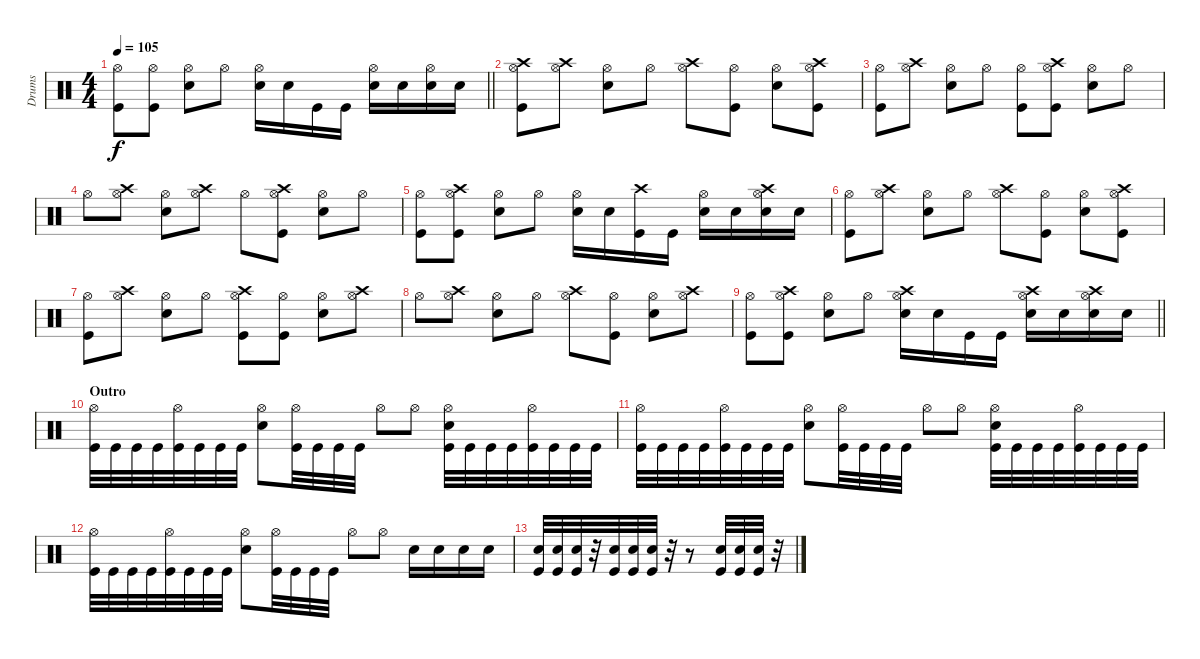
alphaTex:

\track ("Drums" "Drums") {instrument percussion}
\staff {score}
\articulation defaults
\ts (4 4)
\tempo 105
\clef neutral
\barLineRight lightlight
\ks c
("Kick (hit)" "Hi-Hat (open)").8{dy f} ("Kick (hit)" "Hi-Hat (open)").8 ("Snare (hit) 2" "Hi-Hat (open)").8 "Hi-Hat (open)".8 ("Snare (hit) 2" "Hi-Hat (open)").16 "Snare (hit) 2".16 "Kick (hit)".16 "Kick (hit)".16 ("Snare (hit) 2" "Hi-Hat (open)").16 "Snare (hit) 2".16 ("Snare (hit) 2" "Hi-Hat (open)").16 "Snare (hit) 2".16 |
("Kick (hit)" "Hi-Hat (open)" "Crash high (hit)").8 ("Crash high (hit)" "Hi-Hat (open)").8 ("Snare (hit) 2" "Hi-Hat (open)").8 "Hi-Hat (open)".8 ("Crash high (hit)" "Hi-Hat (open)").8 ("Kick (hit)" "Hi-Hat (open)").8 ("Snare (hit) 2" "Hi-Hat (open)").8 ("Crash high (hit)" "Kick (hit)" "Hi-Hat (open)").8 |
("Kick (hit)" "Hi-Hat (open)").8 ("Crash high (hit)" "Hi-Hat (open)").8 ("Snare (hit) 2" "Hi-Hat (open)").8 "Hi-Hat (open)".8 ("Kick (hit)" "Hi-Hat (open)").8 ("Crash high (hit)" "Kick (hit)" "Hi-Hat (open)").8 ("Snare (hit) 2" "Hi-Hat (open)").8 "Hi-Hat (open)".8 |
"Hi-Hat (open)".8 ("Crash high (hit)" "Hi-Hat (open)").8 ("Snare (hit) 2" "Hi-Hat (open)").8 ("Crash high (hit)" "Hi-Hat (open)").8 "Hi-Hat (open)".8 ("Crash high (hit)" "Kick (hit)" "Hi-Hat (open)").8 ("Snare (hit) 2" "Hi-Hat (open)").8 "Hi-Hat (open)".8 |
("Kick (hit)" "Hi-Hat (open)").8 ("Crash high (hit)" "Kick (hit)" "Hi-Hat (open)").8 ("Snare (hit) 2" "Hi-Hat (open)").8 "Hi-Hat (open)".8 ("Snare (hit) 2" "Hi-Hat (open)").16 "Snare (hit) 2".16 ("Crash high (hit)" "Kick (hit)").16 "Kick (hit)".16 ("Snare (hit) 2" "Hi-Hat (open)").16 "Snare (hit) 2".16 ("Crash high (hit)" "Snare (hit) 2" "Hi-Hat (open)").16 "Snare (hit) 2".16 |
("Kick (hit)" "Hi-Hat (open)").8 ("Crash high (hit)" "Hi-Hat (open)").8 ("Snare (hit) 2" "Hi-Hat (open)").8 "Hi-Hat (open)".8 ("Crash high (hit)" "Hi-Hat (open)").8 ("Kick (hit)" "Hi-Hat (open)").8 ("Snare (hit) 2" "Hi-Hat (open)").8 ("Crash high (hit)" "Kick (hit)" "Hi-Hat (open)").8 |
("Kick (hit)" "Hi-Hat (open)").8 ("Crash high (hit)" "Hi-Hat (open)").8 ("Snare (hit) 2" "Hi-Hat (open)").8 "Hi-Hat (open)".8 ("Crash high (hit)" "Kick (hit)" "Hi-Hat (open)").8 ("Kick (hit)" "Hi-Hat (open)").8 ("Snare (hit) 2" "Hi-Hat (open)").8 ("Crash high (hit)" "Hi-Hat (open)").8 |
"Hi-Hat (open)".8 ("Crash high (hit)" "Hi-Hat (open)").8 ("Snare (hit) 2" "Hi-Hat (open)").8 "Hi-Hat (open)".8 ("Crash high (hit)" "Hi-Hat (open)").8 ("Kick (hit)" "Hi-Hat (open)").8 ("Snare (hit) 2" "Hi-Hat (open)").8 ("Crash high (hit)" "Hi-Hat (open)").8 |
\barLineRight lightlight
("Kick (hit)" "Hi-Hat (open)").8 ("Crash high (hit)" "Kick (hit)" "Hi-Hat (open)").8 ("Snare (hit) 2" "Hi-Hat (open)").8 "Hi-Hat (open)".8 ("Crash high (hit)" "Snare (hit) 2" "Hi-Hat (open)").16 "Snare (hit) 2".16 "Kick (hit)".16 "Kick (hit)".16 ("Crash high (hit)" "Snare (hit) 2" "Hi-Hat (open)").16 "Snare (hit) 2".16 ("Crash high (hit)" "Snare (hit) 2" "Hi-Hat (open)").16 "Snare (hit) 2".16 |
\section ("" "Outro")
("Kick (hit)" "Hi-Hat (open)").32 "Kick (hit)".32 "Kick (hit)".32 "Kick (hit)".32 ("Kick (hit)" "Hi-Hat (open)").32 "Kick (hit)".32 "Kick (hit)".32 "Kick (hit)".32 ("Hi-Hat (open)" "Snare (hit) 2").8 ("Hi-Hat (open)" "Kick (hit)").32 "Kick (hit)".32 "Kick (hit)".32 "Kick (hit)".32 "Hi-Hat (open)".8 "Hi-Hat (open)".8 ("Hi-Hat (open)" "Snare (hit) 2" "Kick (hit)").32 "Kick (hit)".32 "Kick (hit)".32 "Kick (hit)".32 ("Hi-Hat (open)" "Kick (hit)").32 "Kick (hit)".32 "Kick (hit)".32 "Kick (hit)".32 |
("Kick (hit)" "Hi-Hat (open)").32 "Kick (hit)".32 "Kick (hit)".32 "Kick (hit)".32 ("Kick (hit)" "Hi-Hat (open)").32 "Kick (hit)".32 "Kick (hit)".32 "Kick (hit)".32 ("Hi-Hat (open)" "Snare (hit) 2").8 ("Hi-Hat (open)" "Kick (hit)").32 "Kick (hit)".32 "Kick (hit)".32 "Kick (hit)".32 "Hi-Hat (open)".8 "Hi-Hat (open)".8 ("Hi-Hat (open)" "Snare (hit) 2" "Kick (hit)").32 "Kick (hit)".32 "Kick (hit)".32 "Kick (hit)".32 ("Hi-Hat (open)" "Kick (hit)").32 "Kick (hit)".32 "Kick (hit)".32 "Kick (hit)".32 |
("Kick (hit)" "Hi-Hat (open)").32 "Kick (hit)".32 "Kick (hit)".32 "Kick (hit)".32 ("Kick (hit)" "Hi-Hat (open)").32 "Kick (hit)".32 "Kick (hit)".32 "Kick (hit)".32 ("Hi-Hat (open)" "Snare (hit) 2").8 ("Hi-Hat (open)" "Kick (hit)").32 "Kick (hit)".32 "Kick (hit)".32 "Kick (hit)".32 "Hi-Hat (open)".8 "Hi-Hat (open)".8 "Snare (hit) 2".16 "Snare (hit) 2".16 "Snare (hit) 2".16 "Snare (hit) 2".16 |
("Snare (hit) 2" "Kick (hit)").32 ("Snare (hit) 2" "Kick (hit)").32 ("Snare (hit) 2" "Kick (hit)").32 r.32 ("Snare (hit) 2" "Kick (hit)").32 ("Snare (hit) 2" "Kick (hit)").32 ("Snare (hit) 2" "Kick (hit)").32 r.32 r.8 ("Snare (hit) 2" "Kick (hit)").32 ("Snare (hit) 2" "Kick (hit)").32 ("Snare (hit) 2" "Kick (hit)").32 r.32
